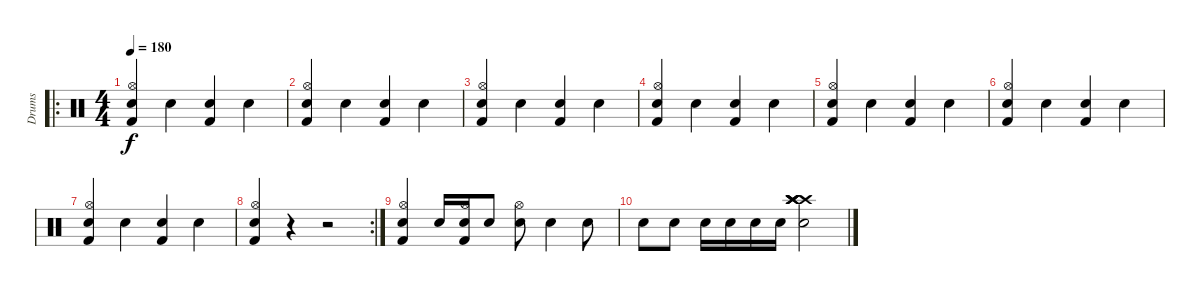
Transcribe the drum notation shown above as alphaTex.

\track ("Drums" "Drums") {instrument percussion}
\staff {score}
\articulation defaults
\ro
\ts (4 4)
\tempo 180
\clef neutral
\ks c
("Kick (hit) 2" "Hi-Hat (open)" "Electric Snare (hit)").4{dy f} "Electric Snare (hit)".4 ("Kick (hit) 2" "Electric Snare (hit)").4 "Electric Snare (hit)".4 |
("Kick (hit) 2" "Hi-Hat (open)" "Electric Snare (hit)").4 "Electric Snare (hit)".4 ("Kick (hit) 2" "Electric Snare (hit)").4 "Electric Snare (hit)".4 |
("Kick (hit) 2" "Hi-Hat (open)" "Electric Snare (hit)").4 "Electric Snare (hit)".4 ("Kick (hit) 2" "Electric Snare (hit)").4 "Electric Snare (hit)".4 |
("Kick (hit) 2" "Hi-Hat (open)" "Electric Snare (hit)").4 "Electric Snare (hit)".4 ("Kick (hit) 2" "Electric Snare (hit)").4 "Electric Snare (hit)".4 |
("Kick (hit) 2" "Hi-Hat (open)" "Electric Snare (hit)").4 "Electric Snare (hit)".4 ("Kick (hit) 2" "Electric Snare (hit)").4 "Electric Snare (hit)".4 |
("Kick (hit) 2" "Hi-Hat (open)" "Electric Snare (hit)").4 "Electric Snare (hit)".4 ("Kick (hit) 2" "Electric Snare (hit)").4 "Electric Snare (hit)".4 |
("Kick (hit) 2" "Hi-Hat (open)" "Electric Snare (hit)").4 "Electric Snare (hit)".4 ("Kick (hit) 2" "Electric Snare (hit)").4 "Electric Snare (hit)".4 |
\rc 2
("Kick (hit) 2" "Hi-Hat (open)" "Electric Snare (hit)").4 r.4 r.2 |
("Kick (hit) 2" "Hi-Hat (open)" "Electric Snare (hit)").4 "Electric Snare (hit)".16 ("Kick (hit) 2" "Hi-Hat (open)" "Electric Snare (hit)").16 "Electric Snare (hit)".8 ("Hi-Hat (open)" "Electric Snare (hit)").8 "Electric Snare (hit)".4 "Electric Snare (hit)".8 |
"Electric Snare (hit)".8 "Electric Snare (hit)".8 "Electric Snare (hit)".16 "Electric Snare (hit)".16 "Electric Snare (hit)".16 "Electric Snare (hit)".16 ("Crash high (hit)" "Crash high (hit)" "Crash high (hit)" "Electric Snare (hit)" "Crash high (hit)" "Crash high (hit)").2
